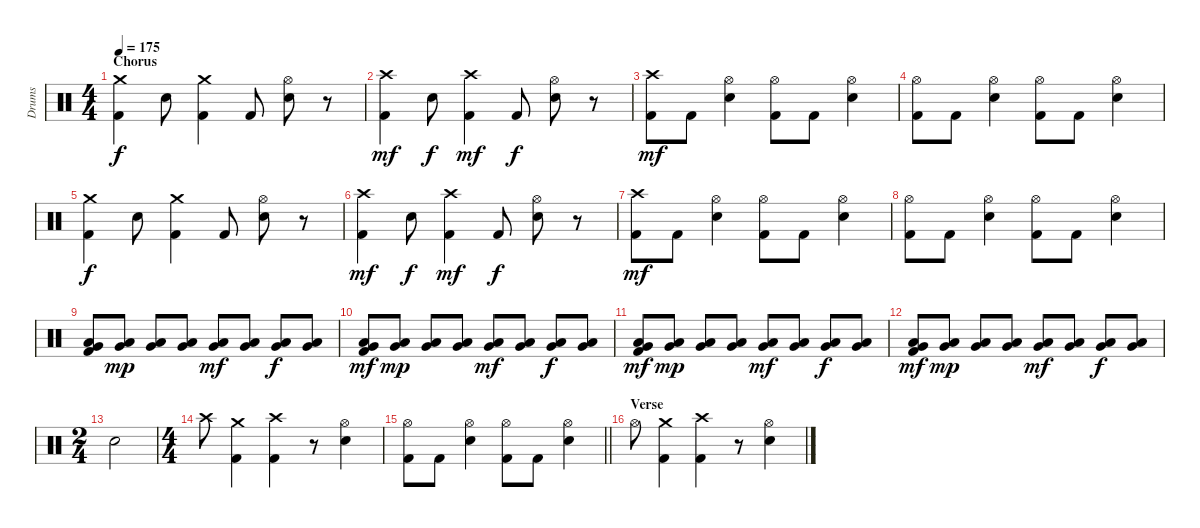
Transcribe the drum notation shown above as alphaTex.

\track ("Drums" "Drums") {instrument percussion}
\staff {score}
\articulation defaults
\ts (4 4)
\section ("" "Chorus")
\tempo 175
\clef neutral
\ks c
("Crash medium (hit)" "Kick (hit) 2").4{dy f} "Electric Snare (hit)".8 ("Crash medium (hit)" "Kick (hit) 2").4 "Kick (hit) 2".8 ("Hi-Hat (open)" "Electric Snare (hit)").8 r.8 |
("Crash high (hit)" "Kick (hit) 2").4{dy mf} "Electric Snare (hit)".8{dy f} ("Crash high (hit)" "Kick (hit) 2").4{dy mf} "Kick (hit) 2".8{dy f} ("Hi-Hat (open)" "Electric Snare (hit)").8 r.8 |
("Crash high (hit)" "Kick (hit) 2").8{dy mf} "Kick (hit) 2".8 ("Hi-Hat (open)" "Electric Snare (hit)").4 ("Hi-Hat (open)" "Kick (hit) 2").8 "Kick (hit) 2".8 ("Hi-Hat (open)" "Electric Snare (hit)").4 |
("Hi-Hat (open)" "Kick (hit) 2").8 "Kick (hit) 2".8 ("Hi-Hat (open)" "Electric Snare (hit)").4 ("Hi-Hat (open)" "Kick (hit) 2").8 "Kick (hit) 2".8 ("Hi-Hat (open)" "Electric Snare (hit)").4 |
("Crash medium (hit)" "Kick (hit) 2").4{dy f} "Electric Snare (hit)".8 ("Crash medium (hit)" "Kick (hit) 2").4 "Kick (hit) 2".8 ("Hi-Hat (open)" "Electric Snare (hit)").8 r.8 |
("Crash high (hit)" "Kick (hit) 2").4{dy mf} "Electric Snare (hit)".8{dy f} ("Crash high (hit)" "Kick (hit) 2").4{dy mf} "Kick (hit) 2".8{dy f} ("Hi-Hat (open)" "Electric Snare (hit)").8 r.8 |
("Crash high (hit)" "Kick (hit) 2").8{dy mf} "Kick (hit) 2".8 ("Hi-Hat (open)" "Electric Snare (hit)").4 ("Hi-Hat (open)" "Kick (hit) 2").8 "Kick (hit) 2".8 ("Hi-Hat (open)" "Electric Snare (hit)").4 |
("Hi-Hat (open)" "Kick (hit) 2").8 "Kick (hit) 2".8 ("Hi-Hat (open)" "Electric Snare (hit)").4 ("Hi-Hat (open)" "Kick (hit) 2").8 "Kick (hit) 2".8 ("Hi-Hat (open)" "Electric Snare (hit)").4 |
("Low Tom (hit)" "Very Low Tom (hit)" "Kick (hit) 2").8 ("Low Tom (hit)" "Very Low Tom (hit)").8{dy mp} ("Low Tom (hit)" "Very Low Tom (hit)").8 ("Low Tom (hit)" "Very Low Tom (hit)").8 ("Low Tom (hit)" "Very Low Tom (hit)").8{dy mf} ("Low Tom (hit)" "Very Low Tom (hit)").8 ("Low Tom (hit)" "Very Low Tom (hit)").8{dy f} ("Low Tom (hit)" "Very Low Tom (hit)").8 |
("Low Tom (hit)" "Very Low Tom (hit)" "Kick (hit) 2").8{dy mf} ("Low Tom (hit)" "Very Low Tom (hit)").8{dy mp} ("Low Tom (hit)" "Very Low Tom (hit)").8 ("Low Tom (hit)" "Very Low Tom (hit)").8 ("Low Tom (hit)" "Very Low Tom (hit)").8{dy mf} ("Low Tom (hit)" "Very Low Tom (hit)").8 ("Low Tom (hit)" "Very Low Tom (hit)").8{dy f} ("Low Tom (hit)" "Very Low Tom (hit)").8 |
("Low Tom (hit)" "Very Low Tom (hit)" "Kick (hit) 2").8{dy mf} ("Low Tom (hit)" "Very Low Tom (hit)").8{dy mp} ("Low Tom (hit)" "Very Low Tom (hit)").8 ("Low Tom (hit)" "Very Low Tom (hit)").8 ("Low Tom (hit)" "Very Low Tom (hit)").8{dy mf} ("Low Tom (hit)" "Very Low Tom (hit)").8 ("Low Tom (hit)" "Very Low Tom (hit)").8{dy f} ("Low Tom (hit)" "Very Low Tom (hit)").8 |
("Low Tom (hit)" "Very Low Tom (hit)" "Kick (hit) 2").8{dy mf} ("Low Tom (hit)" "Very Low Tom (hit)").8{dy mp} ("Low Tom (hit)" "Very Low Tom (hit)").8 ("Low Tom (hit)" "Very Low Tom (hit)").8 ("Low Tom (hit)" "Very Low Tom (hit)").8{dy mf} ("Low Tom (hit)" "Very Low Tom (hit)").8 ("Low Tom (hit)" "Very Low Tom (hit)").8{dy f} ("Low Tom (hit)" "Very Low Tom (hit)").8 |
\ts (2 4)
"Electric Snare (hit)".2 |
\ts (4 4)
"Crash high (hit)".8 ("Crash medium (hit)" "Kick (hit) 2").4 ("Crash high (hit)" "Kick (hit) 2").4 r.8 ("Hi-Hat (open)" "Electric Snare (hit)").4 |
\barLineRight lightlight
("Hi-Hat (open)" "Kick (hit) 2").8 "Kick (hit) 2".8 ("Hi-Hat (open)" "Electric Snare (hit)").4 ("Hi-Hat (open)" "Kick (hit) 2").8 "Kick (hit) 2".8 ("Hi-Hat (open)" "Electric Snare (hit)").4 |
\section ("" "Verse")
"Hi-Hat (open)".8 ("Crash medium (hit)" "Kick (hit) 2").4 ("Crash high (hit)" "Kick (hit) 2").4 r.8 ("Hi-Hat (open)" "Electric Snare (hit)").4
